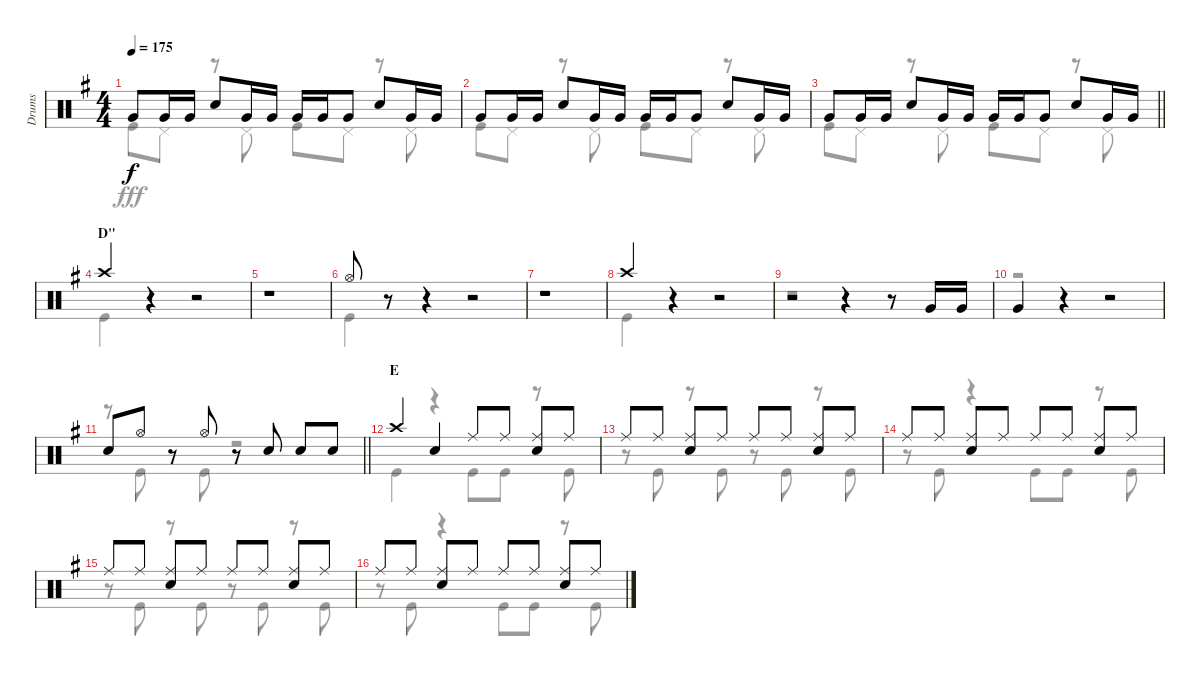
\track ("Drums" "Drums") {instrument percussion}
\staff {score}
\articulation defaults
\voice
\ts (4 4)
\tempo 175
\clef neutral
\ks g "Very Low Tom (hit)".8{dy f} "Very Low Tom (hit)".16 "Very Low Tom (hit)".16 "Snare (hit) 2".8 "Very Low Tom (hit)".16 "Very Low Tom (hit)".16 "Very Low Tom (hit)".16 "Very Low Tom (hit)".16 "Very Low Tom (hit)".8 "Snare (hit) 2".8 "Very Low Tom (hit)".16 "Very Low Tom (hit)".16
|
"Very Low Tom (hit)".8 "Very Low Tom (hit)".16 "Very Low Tom (hit)".16 "Snare (hit) 2".8 "Very Low Tom (hit)".16 "Very Low Tom (hit)".16 "Very Low Tom (hit)".16 "Very Low Tom (hit)".16 "Very Low Tom (hit)".8 "Snare (hit) 2".8 "Very Low Tom (hit)".16 "Very Low Tom (hit)".16 |
\barLineRight lightlight "Very Low Tom (hit)".8 "Very Low Tom (hit)".16 "Very Low Tom (hit)".16 "Snare (hit) 2".8 "Very Low Tom (hit)".16 "Very Low Tom (hit)".16 "Very Low Tom (hit)".16 "Very Low Tom (hit)".16 "Very Low Tom (hit)".8 "Snare (hit) 2".8 "Very Low Tom (hit)".16 "Very Low Tom (hit)".16
|
\section ("" "D\"")
"Crash high (hit)".4 r.4 r.2 |
r.1 |
"Hi-Hat (open)".8 r.8 r.4 r.2 |
r.1 |
"Crash high (hit)".4 r.4 r.2 |
r.2 r.4 r.8 "Very Low Tom (hit)".16 "Very Low Tom (hit)".16 |
"Very Low Tom (hit)".4 r.4 r.2 |
\barLineRight lightlight "Snare (hit) 2".8 "Hi-Hat (open)".8
r.8 "Hi-Hat (open)".8 r.8 "Snare (hit) 2".8 "Snare (hit) 2".8 "Snare (hit) 2".8 |
\section ("" "E")
"Crash high (hit)".4 "Snare (hit) 2".4 "Ride (middle)".8 "Ride (middle)".8 ("Ride (middle)" "Snare (hit) 2").8 "Ride (middle)".8 |
"Ride (middle)".8 "Ride (middle)".8 ("Ride (middle)" "Snare (hit) 2").8 "Ride (middle)".8 "Ride (middle)".8 "Ride (middle)".8 ("Ride (middle)" "Snare (hit) 2").8 "Ride (middle)".8 |
"Ride (middle)".8 "Ride (middle)".8 ("Ride (middle)" "Snare (hit) 2").8 "Ride (middle)".8 "Ride (middle)".8 "Ride (middle)".8 ("Ride (middle)" "Snare (hit) 2").8 "Ride (middle)".8 |
"Ride (middle)".8 "Ride (middle)".8 ("Ride (middle)" "Snare (hit) 2").8 "Ride (middle)".8 "Ride (middle)".8 "Ride (middle)".8 ("Ride (middle)" "Snare (hit) 2").8 "Ride (middle)".8 |
"Ride (middle)".8 "Ride (middle)".8 ("Ride (middle)" "Snare (hit) 2").8 "Ride (middle)".8 "Ride (middle)".8 "Ride (middle)".8 ("Ride (middle)" "Snare (hit) 2").8 "Ride (middle)".8
\voice
\clef neutral
\ottava regular
\simile none
\ks g "Kick (hit)".8{dy fff} "Pedal Hi-Hat (hit)".8
r.8 "Pedal Hi-Hat (hit)".8 "Kick (hit)".8 "Pedal Hi-Hat (hit)".8 r.8 "Pedal Hi-Hat (hit)".8 |
"Kick (hit)".8 "Pedal Hi-Hat (hit)".8 r.8 "Pedal Hi-Hat (hit)".8 "Kick (hit)".8 "Pedal Hi-Hat (hit)".8 r.8 "Pedal Hi-Hat (hit)".8 |
\barLineRight lightlight "Kick (hit)".8 "Pedal Hi-Hat (hit)".8
r.8 "Pedal Hi-Hat (hit)".8 "Kick (hit)".8 "Pedal Hi-Hat (hit)".8 r.8 "Pedal Hi-Hat (hit)".8 |
"Kick (hit)".4 r.4 r.2 |
r.1 |
"Kick (hit)".4 r.4 r.2 |
r.1 |
"Kick (hit)".4 r.4 r.2 |
r.1 |
r.1 |
\barLineRight lightlight
r.8 "Kick (hit)".8 r.8 "Kick (hit)".8 r.2 |
"Kick (hit)".4 r.4 "Kick (hit)".8 "Kick (hit)".8 r.8 "Kick (hit)".8 |
r.8 "Kick (hit)".8 r.8 "Kick (hit)".8 r.8 "Kick (hit)".8 r.8 "Kick (hit)".8 |
r.8 "Kick (hit)".8 r.4 "Kick (hit)".8 "Kick (hit)".8 r.8 "Kick (hit)".8 |
r.8 "Kick (hit)".8 r.8 "Kick (hit)".8 r.8 "Kick (hit)".8 r.8 "Kick (hit)".8 |
r.8 "Kick (hit)".8 r.4 "Kick (hit)".8 "Kick (hit)".8 r.8 "Kick (hit)".8
